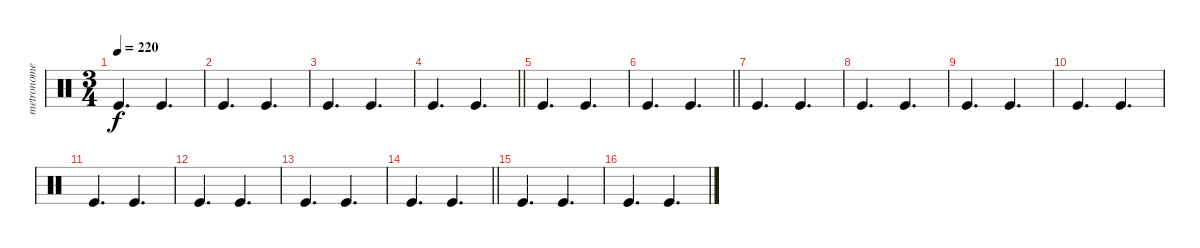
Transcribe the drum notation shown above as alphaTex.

\track ("metronome" "metronome") {instrument percussion}
\staff {score}
\articulation defaults
\ts (3 4)
\tempo 220
\clef neutral
\ks c "Kick (hit)".4{d dy f} "Kick (hit)".4{d}
|
"Kick (hit)".4{d} "Kick (hit)".4{d} |
"Kick (hit)".4{d} "Kick (hit)".4{d} |
\barLineRight lightlight "Kick (hit)".4{d} "Kick (hit)".4{d}
|
"Kick (hit)".4{d} "Kick (hit)".4{d} |
\barLineRight lightlight "Kick (hit)".4{d} "Kick (hit)".4{d}
|
"Kick (hit)".4{d} "Kick (hit)".4{d} |
"Kick (hit)".4{d} "Kick (hit)".4{d} |
"Kick (hit)".4{d} "Kick (hit)".4{d} |
"Kick (hit)".4{d} "Kick (hit)".4{d} |
"Kick (hit)".4{d} "Kick (hit)".4{d} |
"Kick (hit)".4{d} "Kick (hit)".4{d} |
"Kick (hit)".4{d} "Kick (hit)".4{d} |
\barLineRight lightlight "Kick (hit)".4{d} "Kick (hit)".4{d}
|
"Kick (hit)".4{d} "Kick (hit)".4{d} |
"Kick (hit)".4{d} "Kick (hit)".4{d}
